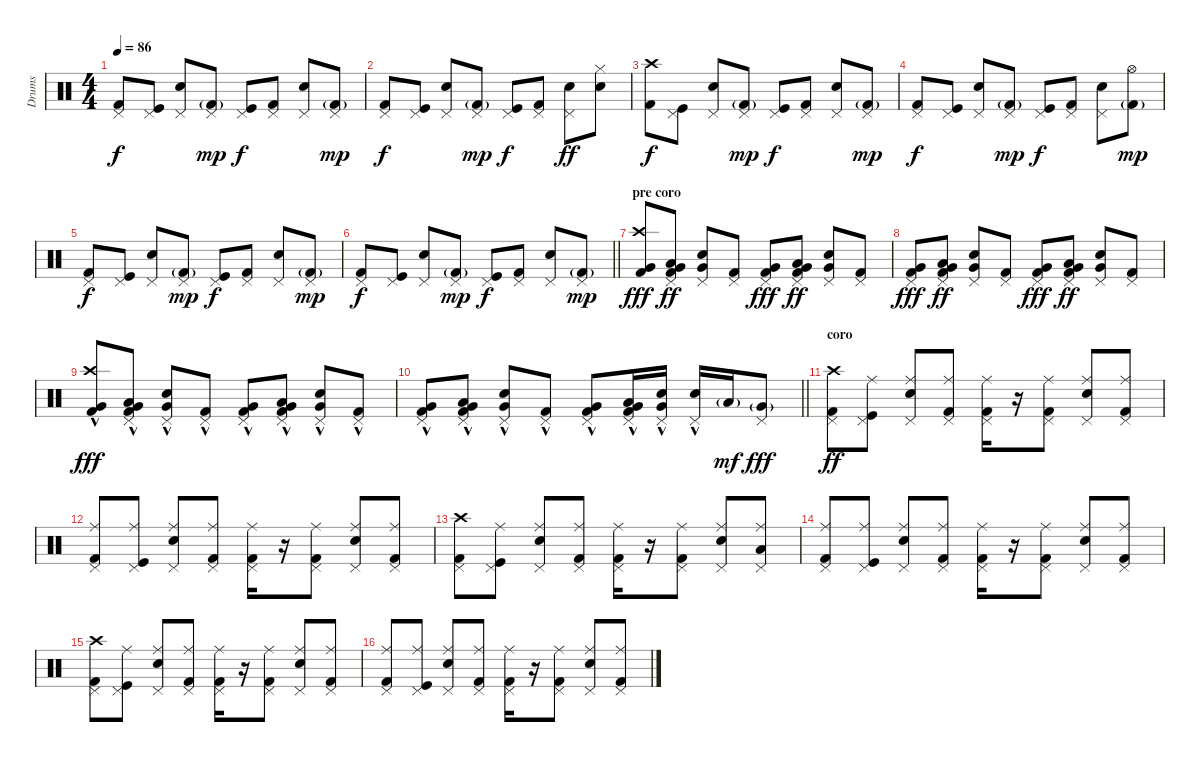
\track ("Drums" "Drums") {instrument percussion}
\staff {score}
\articulation defaults
\ts (4 4)
\tempo 86
\clef neutral
\ks c
("Kick (hit) 2" "Pedal Hi-Hat (hit)").8{dy f} ("Kick (hit)" "Pedal Hi-Hat (hit)").8 ("Snare (hit) 2" "Pedal Hi-Hat (hit)").8 ("Kick (hit) 2"{g} "Pedal Hi-Hat (hit)").8{dy mp} ("Kick (hit)" "Pedal Hi-Hat (hit)").8{dy f} ("Kick (hit) 2" "Pedal Hi-Hat (hit)").8 ("Snare (hit) 2" "Pedal Hi-Hat (hit)").8 ("Kick (hit) 2"{g} "Pedal Hi-Hat (hit)").8{dy mp} |
("Kick (hit) 2" "Pedal Hi-Hat (hit)").8{dy f} ("Kick (hit)" "Pedal Hi-Hat (hit)").8 ("Snare (hit) 2" "Pedal Hi-Hat (hit)").8 ("Kick (hit) 2"{g} "Pedal Hi-Hat (hit)").8{dy mp} ("Kick (hit)" "Pedal Hi-Hat (hit)").8{dy f} ("Kick (hit) 2" "Pedal Hi-Hat (hit)").8 ("Snare (hit) 2" "Pedal Hi-Hat (hit)").8{dy ff} ("Snare (hit) 2" "Hi-Hat (closed)").8 |
("Kick (hit) 2" "Crash high (hit)").8{dy f} ("Kick (hit)" "Pedal Hi-Hat (hit)").8 ("Snare (hit) 2" "Pedal Hi-Hat (hit)").8 ("Kick (hit) 2"{g} "Pedal Hi-Hat (hit)").8{dy mp} ("Kick (hit)" "Pedal Hi-Hat (hit)").8{dy f} ("Kick (hit) 2" "Pedal Hi-Hat (hit)").8 ("Snare (hit) 2" "Pedal Hi-Hat (hit)").8 ("Kick (hit) 2"{g} "Pedal Hi-Hat (hit)").8{dy mp} |
("Kick (hit) 2" "Pedal Hi-Hat (hit)").8{dy f} ("Kick (hit)" "Pedal Hi-Hat (hit)").8 ("Snare (hit) 2" "Pedal Hi-Hat (hit)").8 ("Kick (hit) 2"{g} "Pedal Hi-Hat (hit)").8{dy mp} ("Kick (hit)" "Pedal Hi-Hat (hit)").8{dy f} ("Kick (hit) 2" "Pedal Hi-Hat (hit)").8 ("Snare (hit) 2" "Pedal Hi-Hat (hit)").8 ("Kick (hit) 2"{g} "Hi-Hat (open)").8{dy mp} |
("Kick (hit) 2" "Pedal Hi-Hat (hit)").8{dy f} ("Kick (hit)" "Pedal Hi-Hat (hit)").8 ("Snare (hit) 2" "Pedal Hi-Hat (hit)").8 ("Kick (hit) 2"{g} "Pedal Hi-Hat (hit)").8{dy mp} ("Kick (hit)" "Pedal Hi-Hat (hit)").8{dy f} ("Kick (hit) 2" "Pedal Hi-Hat (hit)").8 ("Snare (hit) 2" "Pedal Hi-Hat (hit)").8 ("Kick (hit) 2"{g} "Pedal Hi-Hat (hit)").8{dy mp} |
\barLineRight lightlight
("Kick (hit) 2" "Pedal Hi-Hat (hit)").8{dy f} ("Kick (hit)" "Pedal Hi-Hat (hit)").8 ("Snare (hit) 2" "Pedal Hi-Hat (hit)").8 ("Kick (hit) 2"{g} "Pedal Hi-Hat (hit)").8{dy mp} ("Kick (hit)" "Pedal Hi-Hat (hit)").8{dy f} ("Kick (hit) 2" "Pedal Hi-Hat (hit)").8 ("Snare (hit) 2" "Pedal Hi-Hat (hit)").8 ("Kick (hit) 2"{g} "Pedal Hi-Hat (hit)").8{dy mp} |
\section ("" "pre coro")
("Very Low Tom (hit)" "Kick (hit) 2" "Crash high (hit)").8{dy fff} ("Low Tom (hit)" "Very Low Tom (hit)" "Kick (hit) 2" "Pedal Hi-Hat (hit)").8{dy ff} ("Snare (hit) 2" "Very Low Tom (hit)" "Pedal Hi-Hat (hit)").8 ("Kick (hit) 2" "Pedal Hi-Hat (hit)").8 ("Very Low Tom (hit)" "Kick (hit) 2" "Pedal Hi-Hat (hit)").8{dy fff} ("Low Tom (hit)" "Very Low Tom (hit)" "Kick (hit) 2" "Pedal Hi-Hat (hit)").8{dy ff} ("Snare (hit) 2" "Very Low Tom (hit)" "Pedal Hi-Hat (hit)").8 ("Kick (hit) 2" "Pedal Hi-Hat (hit)").8 |
("Very Low Tom (hit)" "Kick (hit) 2" "Pedal Hi-Hat (hit)").8{dy fff} ("Low Tom (hit)" "Very Low Tom (hit)" "Kick (hit) 2" "Pedal Hi-Hat (hit)").8{dy ff} ("Snare (hit) 2" "Very Low Tom (hit)" "Pedal Hi-Hat (hit)").8 ("Kick (hit) 2" "Pedal Hi-Hat (hit)").8 ("Very Low Tom (hit)" "Kick (hit) 2" "Pedal Hi-Hat (hit)").8{dy fff} ("Low Tom (hit)" "Very Low Tom (hit)" "Kick (hit) 2" "Pedal Hi-Hat (hit)").8{dy ff} ("Snare (hit) 2" "Very Low Tom (hit)" "Pedal Hi-Hat (hit)").8 ("Kick (hit) 2" "Pedal Hi-Hat (hit)").8 |
("Very Low Tom (hit)"{hac} "Kick (hit) 2"{hac} "Crash high (hit)"{hac}).8{dy fff} ("Low Tom (hit)"{hac} "Very Low Tom (hit)"{hac} "Kick (hit) 2"{hac} "Pedal Hi-Hat (hit)"{hac}).8 ("Snare (hit) 2"{hac} "Very Low Tom (hit)"{hac} "Pedal Hi-Hat (hit)"{hac}).8 ("Kick (hit) 2"{hac} "Pedal Hi-Hat (hit)"{hac}).8 ("Very Low Tom (hit)"{hac} "Kick (hit) 2"{hac} "Pedal Hi-Hat (hit)"{hac}).8 ("Low Tom (hit)"{hac} "Very Low Tom (hit)"{hac} "Kick (hit) 2"{hac} "Pedal Hi-Hat (hit)"{hac}).8 ("Snare (hit) 2"{hac} "Very Low Tom (hit)"{hac} "Pedal Hi-Hat (hit)"{hac}).8 ("Kick (hit) 2"{hac} "Pedal Hi-Hat (hit)"{hac}).8 |
\barLineRight lightlight
("Very Low Tom (hit)"{hac} "Kick (hit) 2"{hac} "Pedal Hi-Hat (hit)"{hac}).8 ("Low Tom (hit)"{hac} "Very Low Tom (hit)"{hac} "Kick (hit) 2"{hac} "Pedal Hi-Hat (hit)"{hac}).8 ("Snare (hit) 2"{hac} "Very Low Tom (hit)"{hac} "Pedal Hi-Hat (hit)"{hac}).8 ("Kick (hit) 2"{hac} "Pedal Hi-Hat (hit)"{hac}).8 ("Very Low Tom (hit)"{hac} "Kick (hit) 2"{hac} "Pedal Hi-Hat (hit)"{hac}).8 ("Low Tom (hit)" "Very Low Tom (hit)"{hac} "Kick (hit) 2"{hac} "Pedal Hi-Hat (hit)"{hac}).16 ("Snare (hit) 2" "Very Low Tom (hit)"{hac} "Pedal Hi-Hat (hit)"{hac}).16 ("Snare (hit) 2"{hac} "Pedal Hi-Hat (hit)").16 "Low Tom (hit)"{g}.16{dy mf} ("Very Low Tom (hit)"{g} "Pedal Hi-Hat (hit)").8{dy fff} |
\section ("" "coro")
("Kick (hit) 2" "Crash high (hit)" "Pedal Hi-Hat (hit)").8{dy ff} ("Kick (hit)" "Ride (middle)" "Pedal Hi-Hat (hit)").8 ("Snare (hit) 2" "Ride (middle)" "Pedal Hi-Hat (hit)").8 ("Kick (hit) 2" "Ride (middle)" "Pedal Hi-Hat (hit)").8 ("Kick (hit) 2" "Ride (middle)" "Pedal Hi-Hat (hit)").16 r.16 ("Kick (hit) 2" "Ride (middle)" "Pedal Hi-Hat (hit)").8 ("Snare (hit) 2" "Ride (middle)" "Pedal Hi-Hat (hit)").8 ("Kick (hit) 2" "Ride (middle)" "Pedal Hi-Hat (hit)").8 |
("Kick (hit) 2" "Ride (middle)" "Pedal Hi-Hat (hit)").8 ("Kick (hit)" "Ride (middle)" "Pedal Hi-Hat (hit)").8 ("Snare (hit) 2" "Ride (middle)" "Pedal Hi-Hat (hit)").8 ("Kick (hit) 2" "Ride (middle)" "Pedal Hi-Hat (hit)").8 ("Kick (hit) 2" "Ride (middle)" "Pedal Hi-Hat (hit)").16 r.16 ("Kick (hit) 2" "Ride (middle)" "Pedal Hi-Hat (hit)").8 ("Snare (hit) 2" "Ride (middle)" "Pedal Hi-Hat (hit)").8 ("Kick (hit) 2" "Ride (middle)" "Pedal Hi-Hat (hit)").8 |
("Kick (hit) 2" "Crash high (hit)" "Pedal Hi-Hat (hit)").8 ("Kick (hit)" "Ride (middle)" "Pedal Hi-Hat (hit)").8 ("Snare (hit) 2" "Ride (middle)" "Pedal Hi-Hat (hit)").8 ("Kick (hit) 2" "Ride (middle)" "Pedal Hi-Hat (hit)").8 ("Kick (hit) 2" "Ride (middle)" "Pedal Hi-Hat (hit)").16 r.16 ("Kick (hit) 2" "Ride (middle)" "Pedal Hi-Hat (hit)").8 ("Snare (hit) 2" "Ride (middle)" "Pedal Hi-Hat (hit)").8 ("Low Tom (hit)" "Ride (middle)" "Pedal Hi-Hat (hit)").8 |
("Kick (hit) 2" "Ride (middle)" "Pedal Hi-Hat (hit)").8 ("Kick (hit)" "Ride (middle)" "Pedal Hi-Hat (hit)").8 ("Snare (hit) 2" "Ride (middle)" "Pedal Hi-Hat (hit)").8 ("Kick (hit) 2" "Ride (middle)" "Pedal Hi-Hat (hit)").8 ("Kick (hit) 2" "Ride (middle)" "Pedal Hi-Hat (hit)").16 r.16 ("Kick (hit) 2" "Ride (middle)" "Pedal Hi-Hat (hit)").8 ("Snare (hit) 2" "Ride (middle)" "Pedal Hi-Hat (hit)").8 ("Kick (hit) 2" "Ride (middle)" "Pedal Hi-Hat (hit)").8 |
("Kick (hit) 2" "Crash high (hit)" "Pedal Hi-Hat (hit)").8 ("Kick (hit)" "Ride (middle)" "Pedal Hi-Hat (hit)").8 ("Snare (hit) 2" "Ride (middle)" "Pedal Hi-Hat (hit)").8 ("Kick (hit) 2" "Ride (middle)" "Pedal Hi-Hat (hit)").8 ("Kick (hit) 2" "Ride (middle)" "Pedal Hi-Hat (hit)").16 r.16 ("Kick (hit) 2" "Ride (middle)" "Pedal Hi-Hat (hit)").8 ("Snare (hit) 2" "Ride (middle)" "Pedal Hi-Hat (hit)").8 ("Kick (hit) 2" "Ride (middle)" "Pedal Hi-Hat (hit)").8 |
("Kick (hit) 2" "Ride (middle)" "Pedal Hi-Hat (hit)").8 ("Kick (hit)" "Ride (middle)" "Pedal Hi-Hat (hit)").8 ("Snare (hit) 2" "Ride (middle)" "Pedal Hi-Hat (hit)").8 ("Kick (hit) 2" "Ride (middle)" "Pedal Hi-Hat (hit)").8 ("Kick (hit) 2" "Ride (middle)" "Pedal Hi-Hat (hit)").16 r.16 ("Kick (hit) 2" "Ride (middle)" "Pedal Hi-Hat (hit)").8 ("Snare (hit) 2" "Ride (middle)" "Pedal Hi-Hat (hit)").8 ("Kick (hit) 2" "Ride (middle)" "Pedal Hi-Hat (hit)").8
